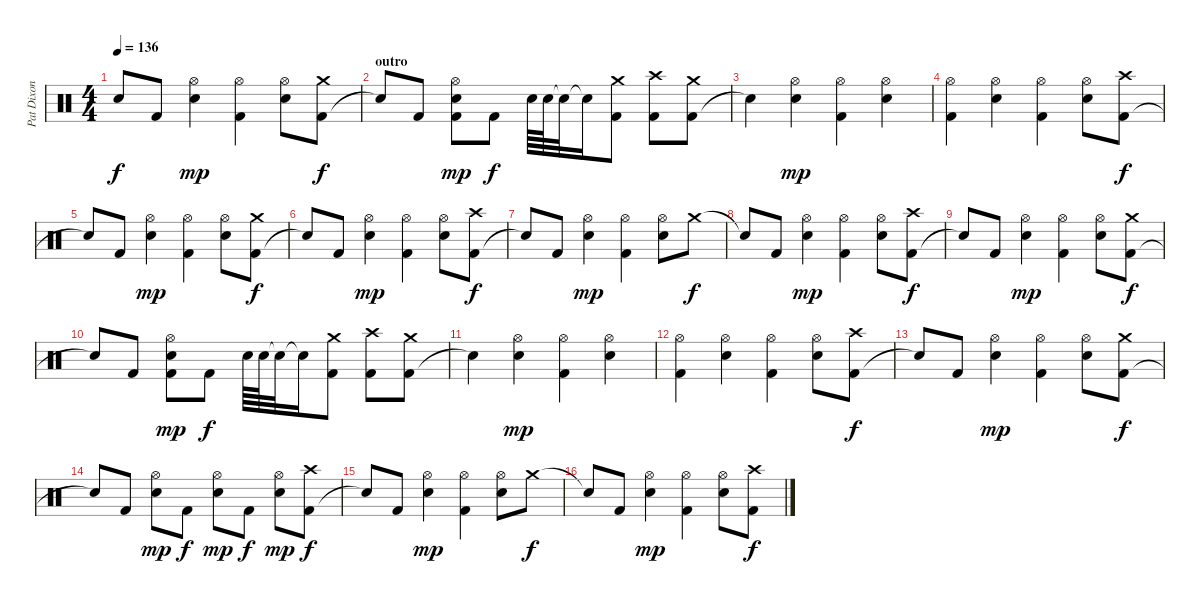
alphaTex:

\track ("Pat Dixon" "Pat Dixon") {instrument percussion}
\staff {score}
\articulation defaults
\ts (4 4)
\tempo 136
\clef neutral
\ks c "Snare (hit)"{t}.8{dy f} "Kick (hit) 2".8
("Hi-Hat (open)" "Snare (hit) 2").4{dy mp} ("Kick (hit) 2" "Hi-Hat (open)").4 ("Hi-Hat (open)" "Snare (hit) 2").8 ("Kick (hit) 2" "Crash medium (hit)").8{dy f} |
\section ("" "outro")
"Snare (hit)"{t}.8 "Kick (hit) 2".8 ("Kick (hit) 2" "Hi-Hat (open)" "Snare (hit) 2").8{dy mp} "Kick (hit) 2".8{dy f} "Snare (hit) 2".64 "Snare (hit) 2".64 "Snare (hit)"{t}.32 "Snare (hit)"{t}.16 ("Kick (hit) 2" "Crash medium (hit)").8 ("Kick (hit) 2" "Crash high (hit)").8 ("Kick (hit) 2" "Crash medium (hit)").8 |
"Snare (hit)"{t}.4 ("Hi-Hat (open)" "Snare (hit) 2").4{dy mp} ("Kick (hit) 2" "Hi-Hat (open)").4 ("Hi-Hat (open)" "Snare (hit) 2").4 |
("Kick (hit) 2" "Hi-Hat (open)").4 ("Hi-Hat (open)" "Snare (hit) 2").4 ("Kick (hit) 2" "Hi-Hat (open)").4 ("Hi-Hat (open)" "Snare (hit) 2").8 ("Kick (hit) 2" "Crash high (hit)").8{dy f} |
"Snare (hit)"{t}.8 "Kick (hit) 2".8 ("Hi-Hat (open)" "Snare (hit) 2").4{dy mp} ("Kick (hit) 2" "Hi-Hat (open)").4 ("Hi-Hat (open)" "Snare (hit) 2").8 ("Kick (hit) 2" "Crash medium (hit)").8{dy f} |
"Snare (hit)"{t}.8 "Kick (hit) 2".8 ("Hi-Hat (open)" "Snare (hit) 2").4{dy mp} ("Kick (hit) 2" "Hi-Hat (open)").4 ("Hi-Hat (open)" "Snare (hit) 2").8 ("Kick (hit) 2" "Crash high (hit)").8{dy f} |
"Snare (hit)"{t}.8 "Kick (hit) 2".8 ("Hi-Hat (open)" "Snare (hit) 2").4{dy mp} ("Kick (hit) 2" "Hi-Hat (open)").4 ("Hi-Hat (open)" "Snare (hit) 2").8 "Crash medium (hit)".8{dy f} |
"Snare (hit)"{t}.8 "Kick (hit) 2".8 ("Hi-Hat (open)" "Snare (hit) 2").4{dy mp} ("Kick (hit) 2" "Hi-Hat (open)").4 ("Hi-Hat (open)" "Snare (hit) 2").8 ("Kick (hit) 2" "Crash high (hit)").8{dy f} |
"Snare (hit)"{t}.8 "Kick (hit) 2".8 ("Hi-Hat (open)" "Snare (hit) 2").4{dy mp} ("Kick (hit) 2" "Hi-Hat (open)").4 ("Hi-Hat (open)" "Snare (hit) 2").8 ("Kick (hit) 2" "Crash medium (hit)").8{dy f} |
"Snare (hit)"{t}.8 "Kick (hit) 2".8 ("Kick (hit) 2" "Hi-Hat (open)" "Snare (hit) 2").8{dy mp} "Kick (hit) 2".8{dy f} "Snare (hit) 2".64 "Snare (hit) 2".64 "Snare (hit)"{t}.32 "Snare (hit)"{t}.16 ("Kick (hit) 2" "Crash medium (hit)").8 ("Kick (hit) 2" "Crash high (hit)").8 ("Kick (hit) 2" "Crash medium (hit)").8 |
"Snare (hit)"{t}.4 ("Hi-Hat (open)" "Snare (hit) 2").4{dy mp} ("Kick (hit) 2" "Hi-Hat (open)").4 ("Hi-Hat (open)" "Snare (hit) 2").4 |
("Kick (hit) 2" "Hi-Hat (open)").4 ("Hi-Hat (open)" "Snare (hit) 2").4 ("Kick (hit) 2" "Hi-Hat (open)").4 ("Hi-Hat (open)" "Snare (hit) 2").8 ("Kick (hit) 2" "Crash high (hit)").8{dy f} |
"Snare (hit)"{t}.8 "Kick (hit) 2".8 ("Hi-Hat (open)" "Snare (hit) 2").4{dy mp} ("Kick (hit) 2" "Hi-Hat (open)").4 ("Hi-Hat (open)" "Snare (hit) 2").8 ("Kick (hit) 2" "Crash medium (hit)").8{dy f} |
"Snare (hit)"{t}.8 "Kick (hit) 2".8 ("Hi-Hat (open)" "Snare (hit) 2").8{dy mp} "Kick (hit) 2".8{dy f} ("Hi-Hat (open)" "Snare (hit) 2").8{dy mp} "Kick (hit) 2".8{dy f} ("Hi-Hat (open)" "Snare (hit) 2").8{dy mp} ("Kick (hit) 2" "Crash high (hit)").8{dy f} |
"Snare (hit)"{t}.8 "Kick (hit) 2".8 ("Hi-Hat (open)" "Snare (hit) 2").4{dy mp} ("Kick (hit) 2" "Hi-Hat (open)").4 ("Hi-Hat (open)" "Snare (hit) 2").8 "Crash medium (hit)".8{dy f} |
"Snare (hit)"{t}.8 "Kick (hit) 2".8 ("Hi-Hat (open)" "Snare (hit) 2").4{dy mp} ("Kick (hit) 2" "Hi-Hat (open)").4 ("Hi-Hat (open)" "Snare (hit) 2").8 ("Kick (hit) 2" "Crash high (hit)").8{dy f}
